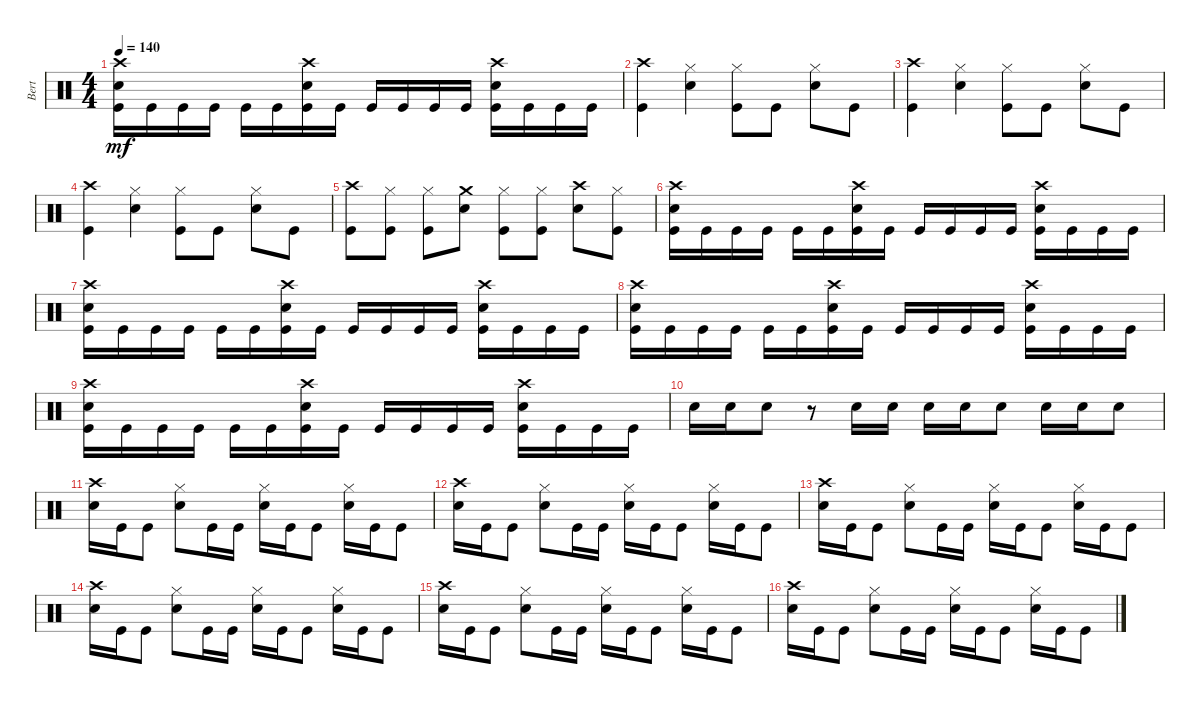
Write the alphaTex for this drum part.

\track ("Bert" "Bert") {instrument percussion}
\staff {score}
\articulation defaults
\ts (4 4)
\tempo 140
\clef neutral
\ks c
("Kick (hit)" "Electric Snare (hit)" "Crash high (hit)").16{dy mf} "Kick (hit)".16 "Kick (hit)".16 "Kick (hit)".16 "Kick (hit)".16 "Kick (hit)".16 ("Crash high (hit)" "Electric Snare (hit)" "Kick (hit)").16 "Kick (hit)".16 "Kick (hit)".16 "Kick (hit)".16 "Kick (hit)".16 "Kick (hit)".16 ("Kick (hit)" "Electric Snare (hit)" "Crash high (hit)").16 "Kick (hit)".16 "Kick (hit)".16 "Kick (hit)".16 |
("Crash high (hit)" "Kick (hit)").4 ("Hi-Hat (closed)" "Electric Snare (hit)").4 ("Kick (hit)" "Hi-Hat (closed)").8 "Kick (hit)".8 ("Electric Snare (hit)" "Hi-Hat (closed)").8 "Kick (hit)".8 |
("Crash high (hit)" "Kick (hit)").4 ("Electric Snare (hit)" "Hi-Hat (closed)").4 ("Hi-Hat (closed)" "Kick (hit)").8 "Kick (hit)".8 ("Electric Snare (hit)" "Hi-Hat (closed)").8 "Kick (hit)".8 |
("Crash high (hit)" "Kick (hit)").4 ("Hi-Hat (closed)" "Electric Snare (hit)").4 ("Hi-Hat (closed)" "Kick (hit)").8 "Kick (hit)".8 ("Hi-Hat (closed)" "Electric Snare (hit)").8 "Kick (hit)".8 |
("Crash high (hit)" "Kick (hit)").8 ("Kick (hit)" "Hi-Hat (closed)").8 ("Hi-Hat (closed)" "Kick (hit)").8 ("Electric Snare (hit)" "Crash medium (hit)").8 ("Kick (hit)" "Hi-Hat (closed)").8 ("Hi-Hat (closed)" "Kick (hit)").8 ("Electric Snare (hit)" "Crash high (hit)").8 ("Kick (hit)" "Hi-Hat (closed)").8 |
("Electric Snare (hit)" "Crash high (hit)" "Kick (hit)").16 "Kick (hit)".16 "Kick (hit)".16 "Kick (hit)".16 "Kick (hit)".16 "Kick (hit)".16 ("Kick (hit)" "Electric Snare (hit)" "Crash high (hit)").16 "Kick (hit)".16 "Kick (hit)".16 "Kick (hit)".16 "Kick (hit)".16 "Kick (hit)".16 ("Electric Snare (hit)" "Crash high (hit)" "Kick (hit)").16 "Kick (hit)".16 "Kick (hit)".16 "Kick (hit)".16 |
("Electric Snare (hit)" "Crash high (hit)" "Kick (hit)").16 "Kick (hit)".16 "Kick (hit)".16 "Kick (hit)".16 "Kick (hit)".16 "Kick (hit)".16 ("Crash high (hit)" "Electric Snare (hit)" "Kick (hit)").16 "Kick (hit)".16 "Kick (hit)".16 "Kick (hit)".16 "Kick (hit)".16 "Kick (hit)".16 ("Crash high (hit)" "Electric Snare (hit)" "Kick (hit)").16 "Kick (hit)".16 "Kick (hit)".16 "Kick (hit)".16 |
("Crash high (hit)" "Electric Snare (hit)" "Kick (hit)").16 "Kick (hit)".16 "Kick (hit)".16 "Kick (hit)".16 "Kick (hit)".16 "Kick (hit)".16 ("Crash high (hit)" "Electric Snare (hit)" "Kick (hit)").16 "Kick (hit)".16 "Kick (hit)".16 "Kick (hit)".16 "Kick (hit)".16 "Kick (hit)".16 ("Crash high (hit)" "Electric Snare (hit)" "Kick (hit)").16 "Kick (hit)".16 "Kick (hit)".16 "Kick (hit)".16 |
("Kick (hit)" "Electric Snare (hit)" "Crash high (hit)").16 "Kick (hit)".16 "Kick (hit)".16 "Kick (hit)".16 "Kick (hit)".16 "Kick (hit)".16 ("Crash high (hit)" "Electric Snare (hit)" "Kick (hit)").16 "Kick (hit)".16 "Kick (hit)".16 "Kick (hit)".16 "Kick (hit)".16 "Kick (hit)".16 ("Kick (hit)" "Electric Snare (hit)" "Crash high (hit)").16 "Kick (hit)".16 "Kick (hit)".16 "Kick (hit)".16 |
"Electric Snare (hit)".16 "Electric Snare (hit)".16 "Electric Snare (hit)".8 r.8 "Electric Snare (hit)".16 "Electric Snare (hit)".16 "Electric Snare (hit)".16 "Electric Snare (hit)".16 "Electric Snare (hit)".8 "Electric Snare (hit)".16 "Electric Snare (hit)".16 "Electric Snare (hit)".8 |
("Crash high (hit)" "Electric Snare (hit)").16 "Kick (hit)".16 "Kick (hit)".8 ("Hi-Hat (closed)" "Electric Snare (hit)").8 "Kick (hit)".16 "Kick (hit)".16 ("Hi-Hat (closed)" "Electric Snare (hit)").16 "Kick (hit)".16 "Kick (hit)".8 ("Electric Snare (hit)" "Hi-Hat (closed)").16 "Kick (hit)".16 "Kick (hit)".8 |
("Electric Snare (hit)" "Crash high (hit)").16 "Kick (hit)".16 "Kick (hit)".8 ("Hi-Hat (closed)" "Electric Snare (hit)").8 "Kick (hit)".16 "Kick (hit)".16 ("Hi-Hat (closed)" "Electric Snare (hit)").16 "Kick (hit)".16 "Kick (hit)".8 ("Electric Snare (hit)" "Hi-Hat (closed)").16 "Kick (hit)".16 "Kick (hit)".8 |
("Electric Snare (hit)" "Crash high (hit)").16 "Kick (hit)".16 "Kick (hit)".8 ("Electric Snare (hit)" "Hi-Hat (closed)").8 "Kick (hit)".16 "Kick (hit)".16 ("Hi-Hat (closed)" "Electric Snare (hit)").16 "Kick (hit)".16 "Kick (hit)".8 ("Hi-Hat (closed)" "Electric Snare (hit)").16 "Kick (hit)".16 "Kick (hit)".8 |
("Electric Snare (hit)" "Crash high (hit)").16 "Kick (hit)".16 "Kick (hit)".8 ("Hi-Hat (closed)" "Electric Snare (hit)").8 "Kick (hit)".16 "Kick (hit)".16 ("Hi-Hat (closed)" "Electric Snare (hit)").16 "Kick (hit)".16 "Kick (hit)".8 ("Electric Snare (hit)" "Hi-Hat (closed)").16 "Kick (hit)".16 "Kick (hit)".8 |
("Crash high (hit)" "Electric Snare (hit)").16 "Kick (hit)".16 "Kick (hit)".8 ("Hi-Hat (closed)" "Electric Snare (hit)").8 "Kick (hit)".16 "Kick (hit)".16 ("Hi-Hat (closed)" "Electric Snare (hit)").16 "Kick (hit)".16 "Kick (hit)".8 ("Hi-Hat (closed)" "Electric Snare (hit)").16 "Kick (hit)".16 "Kick (hit)".8 |
("Electric Snare (hit)" "Crash high (hit)").16 "Kick (hit)".16 "Kick (hit)".8 ("Hi-Hat (closed)" "Electric Snare (hit)").8 "Kick (hit)".16 "Kick (hit)".16 ("Hi-Hat (closed)" "Electric Snare (hit)").16 "Kick (hit)".16 "Kick (hit)".8 ("Hi-Hat (closed)" "Electric Snare (hit)").16 "Kick (hit)".16 "Kick (hit)".8
